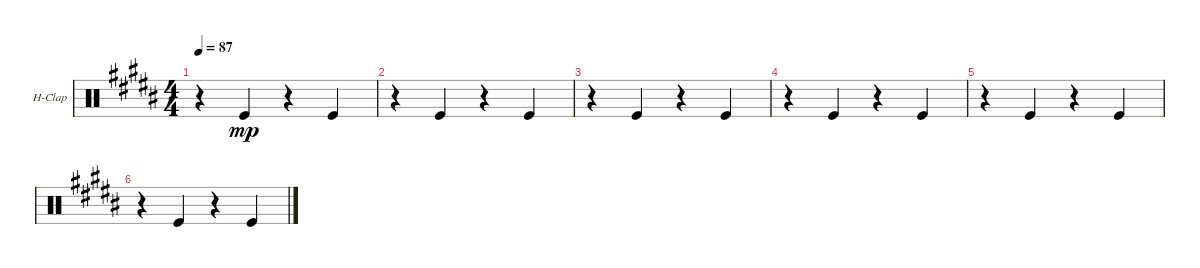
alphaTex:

\defaultSystemsLayout 4
\bracketExtendMode groupsimilarinstruments
\firstSystemTrackNameOrientation horizontal
\otherSystemsTrackNameOrientation horizontal
\track ("Hand Clap" "H-Clap") {instrument percussion}
\staff {score}
\articulation defaults
\ts (4 4)
\tempo 87
\clef neutral
\ks b
r.4{dy mp} "Kick (hit)".4 r.4 "Kick (hit)".4 |
r.4 "Kick (hit)".4 r.4 "Kick (hit)".4 |
r.4 "Kick (hit)".4 r.4 "Kick (hit)".4 |
r.4 "Kick (hit)".4 r.4 "Kick (hit)".4 |
r.4 "Kick (hit)".4 r.4 "Kick (hit)".4 |
r.4 "Kick (hit)".4 r.4 "Kick (hit)".4
